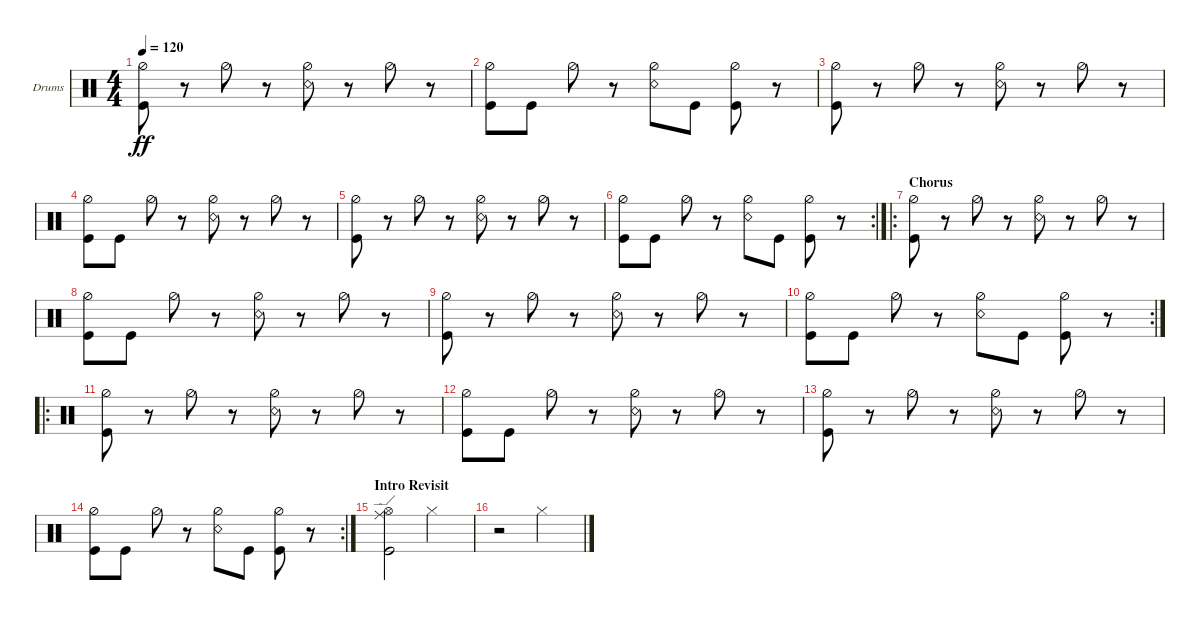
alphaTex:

\bracketExtendMode groupsimilarinstruments
\firstSystemTrackNameOrientation horizontal
\otherSystemsTrackNameOrientation horizontal
\track ("Drumkit" "Drums") {instrument percussion}
\staff {score}
\articulation defaults
\ts (4 4)
\tempo 120
\clef neutral
\ks c
("Hi-Hat (half)" "Kick (hit)").8{dy ff} r.8 "Hi-Hat (half)".8 r.8 ("Hi-Hat (half)" "Snare (rim shot)").8 r.8 "Hi-Hat (half)".8 r.8 |
("Hi-Hat (half)" "Kick (hit)").8 "Kick (hit)".8 "Hi-Hat (half)".8 r.8 ("Hi-Hat (half)" "Snare (rim shot)").8 "Kick (hit)".8 ("Hi-Hat (half)" "Kick (hit)").8 r.8 |
("Hi-Hat (half)" "Kick (hit)").8 r.8 "Hi-Hat (half)".8 r.8 ("Hi-Hat (half)" "Snare (rim shot)").8 r.8 "Hi-Hat (half)".8 r.8 |
("Hi-Hat (half)" "Kick (hit)").8 "Kick (hit)".8 "Hi-Hat (half)".8 r.8 ("Hi-Hat (half)" "Snare (rim shot)").8 r.8 "Hi-Hat (half)".8 r.8 |
("Hi-Hat (half)" "Kick (hit)").8 r.8 "Hi-Hat (half)".8 r.8 ("Hi-Hat (half)" "Snare (rim shot)").8 r.8 "Hi-Hat (half)".8 r.8 |
\rc 2
("Hi-Hat (half)" "Kick (hit)").8 "Kick (hit)".8 "Hi-Hat (half)".8 r.8 ("Hi-Hat (half)" "Snare (rim shot)").8 "Kick (hit)".8 ("Hi-Hat (half)" "Kick (hit)").8 r.8 |
\ro
\section ("" "Chorus")
("Hi-Hat (half)" "Kick (hit)").8 r.8 "Hi-Hat (half)".8 r.8 ("Hi-Hat (half)" "Snare (rim shot)").8 r.8 "Hi-Hat (half)".8 r.8 |
("Hi-Hat (half)" "Kick (hit)").8 "Kick (hit)".8 "Hi-Hat (half)".8 r.8 ("Hi-Hat (half)" "Snare (rim shot)").8 r.8 "Hi-Hat (half)".8 r.8 |
("Hi-Hat (half)" "Kick (hit)").8 r.8 "Hi-Hat (half)".8 r.8 ("Hi-Hat (half)" "Snare (rim shot)").8 r.8 "Hi-Hat (half)".8 r.8 |
\rc 2
("Hi-Hat (half)" "Kick (hit)").8 "Kick (hit)".8 "Hi-Hat (half)".8 r.8 ("Hi-Hat (half)" "Snare (rim shot)").8 "Kick (hit)".8 ("Hi-Hat (half)" "Kick (hit)").8 r.8 |
\ro
("Hi-Hat (half)" "Kick (hit)").8 r.8 "Hi-Hat (half)".8 r.8 ("Hi-Hat (half)" "Snare (rim shot)").8 r.8 "Hi-Hat (half)".8 r.8 |
("Hi-Hat (half)" "Kick (hit)").8 "Kick (hit)".8 "Hi-Hat (half)".8 r.8 ("Hi-Hat (half)" "Snare (rim shot)").8 r.8 "Hi-Hat (half)".8 r.8 |
("Hi-Hat (half)" "Kick (hit)").8 r.8 "Hi-Hat (half)".8 r.8 ("Hi-Hat (half)" "Snare (rim shot)").8 r.8 "Hi-Hat (half)".8 r.8 |
\rc 2
("Hi-Hat (half)" "Kick (hit)").8 "Kick (hit)".8 "Hi-Hat (half)".8 r.8 ("Hi-Hat (half)" "Snare (rim shot)").8 "Kick (hit)".8 ("Hi-Hat (half)" "Kick (hit)").8 r.8 |
\section ("" "Intro Revisit")
("Kick (hit)" "Hi-Hat (open)" "Ride (edge)").2 "Hi-Hat (closed)".2 |
r.2 "Hi-Hat (closed)".2
